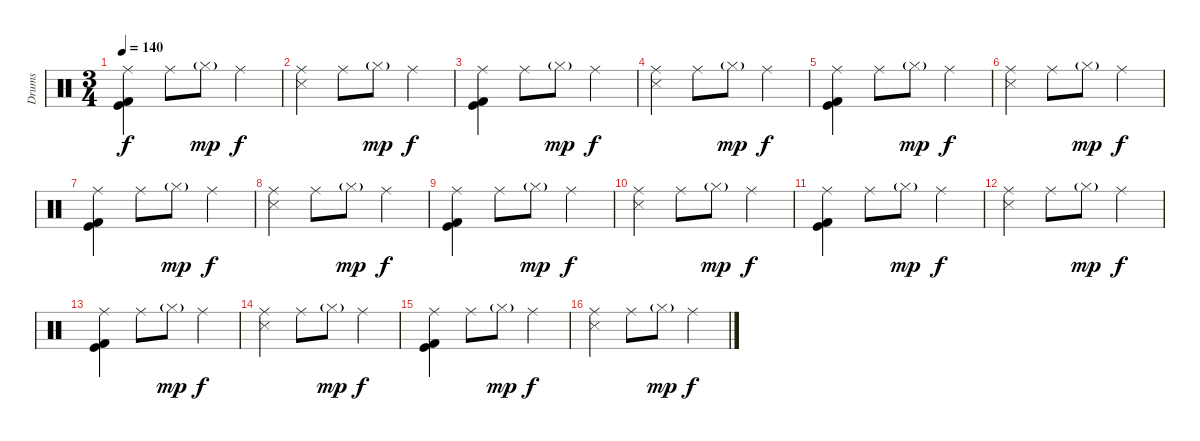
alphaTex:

\track ("Drums" "Drums") {instrument percussion}
\staff {score}
\articulation defaults
\ts (3 4)
\tempo 140
\clef neutral
\ks c
("Ride (middle)" "Kick (hit) 2" "Kick (hit)").4{dy f} "Ride (middle)".8 "Hi-Hat (closed)"{g}.8{dy mp} "Ride (middle)".4{dy f} |
("Ride (middle)" "Snare (side stick) 3").4 "Ride (middle)".8 "Hi-Hat (closed)"{g}.8{dy mp} "Ride (middle)".4{dy f} |
("Ride (middle)" "Kick (hit) 2" "Kick (hit)").4 "Ride (middle)".8 "Hi-Hat (closed)"{g}.8{dy mp} "Ride (middle)".4{dy f} |
("Ride (middle)" "Snare (side stick) 3").4 "Ride (middle)".8 "Hi-Hat (closed)"{g}.8{dy mp} "Ride (middle)".4{dy f} |
("Ride (middle)" "Kick (hit) 2" "Kick (hit)").4 "Ride (middle)".8 "Hi-Hat (closed)"{g}.8{dy mp} "Ride (middle)".4{dy f} |
("Ride (middle)" "Snare (side stick) 3").4 "Ride (middle)".8 "Hi-Hat (closed)"{g}.8{dy mp} "Ride (middle)".4{dy f} |
("Ride (middle)" "Kick (hit) 2" "Kick (hit)").4 "Ride (middle)".8 "Hi-Hat (closed)"{g}.8{dy mp} "Ride (middle)".4{dy f} |
("Ride (middle)" "Snare (side stick) 3").4 "Ride (middle)".8 "Hi-Hat (closed)"{g}.8{dy mp} "Ride (middle)".4{dy f} |
("Ride (middle)" "Kick (hit) 2" "Kick (hit)").4 "Ride (middle)".8 "Hi-Hat (closed)"{g}.8{dy mp} "Ride (middle)".4{dy f} |
("Ride (middle)" "Snare (side stick) 3").4 "Ride (middle)".8 "Hi-Hat (closed)"{g}.8{dy mp} "Ride (middle)".4{dy f} |
("Ride (middle)" "Kick (hit) 2" "Kick (hit)").4 "Ride (middle)".8 "Hi-Hat (closed)"{g}.8{dy mp} "Ride (middle)".4{dy f} |
("Ride (middle)" "Snare (side stick) 3").4 "Ride (middle)".8 "Hi-Hat (closed)"{g}.8{dy mp} "Ride (middle)".4{dy f} |
("Ride (middle)" "Kick (hit) 2" "Kick (hit)").4 "Ride (middle)".8 "Hi-Hat (closed)"{g}.8{dy mp} "Ride (middle)".4{dy f} |
("Ride (middle)" "Snare (side stick) 3").4 "Ride (middle)".8 "Hi-Hat (closed)"{g}.8{dy mp} "Ride (middle)".4{dy f} |
("Ride (middle)" "Kick (hit) 2" "Kick (hit)").4 "Ride (middle)".8 "Hi-Hat (closed)"{g}.8{dy mp} "Ride (middle)".4{dy f} |
("Ride (middle)" "Snare (side stick) 3").4 "Ride (middle)".8 "Hi-Hat (closed)"{g}.8{dy mp} "Ride (middle)".4{dy f}
